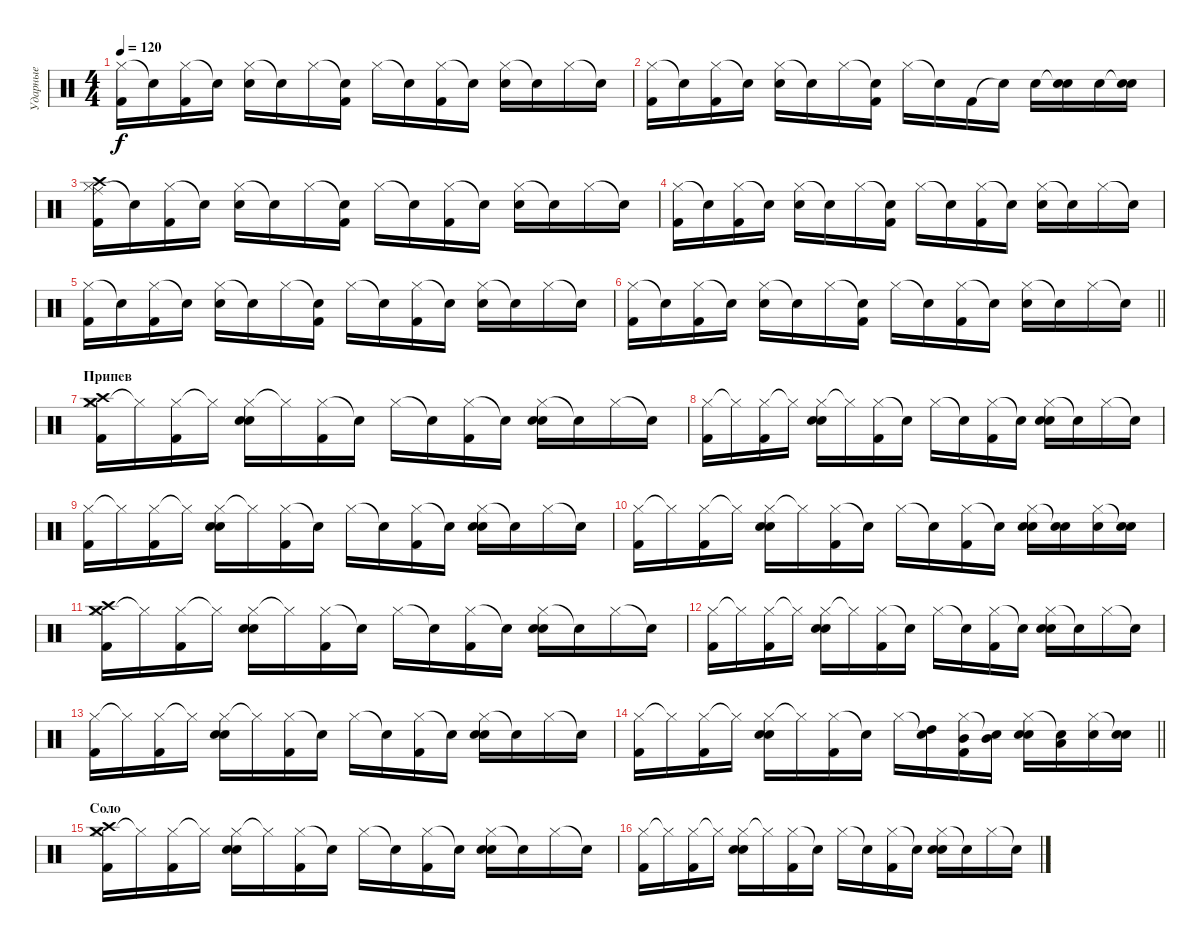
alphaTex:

\track ("Ударные" "Ударные") {instrument percussion}
\staff {score}
\articulation defaults
\ts (4 4)
\tempo 120
\clef neutral
\ks c
("Hi-Hat (closed)" "Kick (hit) 2").16{dy f} "Snare (hit)"{t}.16 ("Hi-Hat (closed)" "Kick (hit) 2").16 "Snare (hit)"{t}.16 ("Hi-Hat (closed)" "Snare (hit) 2").16 "Snare (hit)"{t}.16 "Hi-Hat (closed)".16 ("Snare (hit)"{t} "Kick (hit) 2").16 "Hi-Hat (closed)".16 "Snare (hit)"{t}.16 ("Hi-Hat (closed)" "Kick (hit) 2").16 "Snare (hit)"{t}.16 ("Hi-Hat (closed)" "Snare (hit) 2").16 "Snare (hit)"{t}.16 "Hi-Hat (closed)".16 "Snare (hit)"{t}.16 |
("Hi-Hat (closed)" "Kick (hit) 2").16 "Snare (hit)"{t}.16 ("Hi-Hat (closed)" "Kick (hit) 2").16 "Snare (hit)"{t}.16 ("Hi-Hat (closed)" "Snare (hit) 2").16 "Snare (hit)"{t}.16 "Hi-Hat (closed)".16 ("Snare (hit)"{t} "Kick (hit) 2").16 "Hi-Hat (closed)".16 "Snare (hit)"{t}.16 "Kick (hit) 2".16 "Snare (hit)"{t}.16 "Snare (hit) 2".16 ("Snare (hit)"{t} "Snare (hit) 2").16 "Snare (hit) 2".16 ("Snare (hit)"{t} "Snare (hit) 2").16 |
("Hi-Hat (closed)" "Ride (middle)" "Crash high (hit)" "Kick (hit) 2").16 "Snare (hit)"{t}.16 ("Hi-Hat (closed)" "Kick (hit) 2").16 "Snare (hit)"{t}.16 ("Hi-Hat (closed)" "Snare (hit) 2").16 "Snare (hit)"{t}.16 "Hi-Hat (closed)".16 ("Snare (hit)"{t} "Kick (hit) 2").16 "Hi-Hat (closed)".16 "Snare (hit)"{t}.16 ("Hi-Hat (closed)" "Kick (hit) 2").16 "Snare (hit)"{t}.16 ("Hi-Hat (closed)" "Snare (hit) 2").16 "Snare (hit)"{t}.16 "Hi-Hat (closed)".16 "Snare (hit)"{t}.16 |
("Hi-Hat (closed)" "Kick (hit) 2").16 "Snare (hit)"{t}.16 ("Hi-Hat (closed)" "Kick (hit) 2").16 "Snare (hit)"{t}.16 ("Hi-Hat (closed)" "Snare (hit) 2").16 "Snare (hit)"{t}.16 "Hi-Hat (closed)".16 ("Snare (hit)"{t} "Kick (hit) 2").16 "Hi-Hat (closed)".16 "Snare (hit)"{t}.16 ("Hi-Hat (closed)" "Kick (hit) 2").16 "Snare (hit)"{t}.16 ("Hi-Hat (closed)" "Snare (hit) 2").16 "Snare (hit)"{t}.16 "Hi-Hat (closed)".16 "Snare (hit)"{t}.16 |
("Hi-Hat (closed)" "Kick (hit) 2").16 "Snare (hit)"{t}.16 ("Hi-Hat (closed)" "Kick (hit) 2").16 "Snare (hit)"{t}.16 ("Hi-Hat (closed)" "Snare (hit) 2").16 "Snare (hit)"{t}.16 "Hi-Hat (closed)".16 ("Snare (hit)"{t} "Kick (hit) 2").16 "Hi-Hat (closed)".16 "Snare (hit)"{t}.16 ("Hi-Hat (closed)" "Kick (hit) 2").16 "Snare (hit)"{t}.16 ("Hi-Hat (closed)" "Snare (hit) 2").16 "Snare (hit)"{t}.16 "Hi-Hat (closed)".16 "Snare (hit)"{t}.16 |
\barLineRight lightlight
("Hi-Hat (closed)" "Kick (hit) 2").16 "Snare (hit)"{t}.16 ("Hi-Hat (closed)" "Kick (hit) 2").16 "Snare (hit)"{t}.16 ("Hi-Hat (closed)" "Snare (hit) 2").16 "Snare (hit)"{t}.16 "Hi-Hat (closed)".16 ("Snare (hit)"{t} "Kick (hit) 2").16 "Hi-Hat (closed)".16 "Snare (hit)"{t}.16 ("Hi-Hat (closed)" "Kick (hit) 2").16 "Snare (hit)"{t}.16 ("Hi-Hat (closed)" "Snare (hit) 2").16 "Snare (hit)"{t}.16 "Hi-Hat (closed)".16 "Snare (hit)"{t}.16 |
\section ("" "Припев")
("Hi-Hat (closed)" "Crash medium (hit)" "Crash high (hit)" "Kick (hit) 2").16 "Hi-Hat (closed)"{t}.16 ("Hi-Hat (closed)" "Kick (hit) 2").16 "Hi-Hat (closed)"{t}.16 ("Hi-Hat (closed)" "Electric Snare (hit)" "Snare (hit) 2").16 "Hi-Hat (closed)"{t}.16 ("Hi-Hat (closed)" "Kick (hit) 2").16 "Snare (hit)"{t}.16 "Hi-Hat (closed)".16 "Snare (hit)"{t}.16 ("Hi-Hat (closed)" "Kick (hit) 2").16 "Snare (hit)"{t}.16 ("Hi-Hat (closed)" "Electric Snare (hit)" "Snare (hit) 2").16 "Snare (hit)"{t}.16 "Hi-Hat (closed)".16 "Snare (hit)"{t}.16 |
("Hi-Hat (closed)" "Kick (hit) 2").16 "Hi-Hat (closed)"{t}.16 ("Hi-Hat (closed)" "Kick (hit) 2").16 "Hi-Hat (closed)"{t}.16 ("Hi-Hat (closed)" "Electric Snare (hit)" "Snare (hit) 2").16 "Hi-Hat (closed)"{t}.16 ("Hi-Hat (closed)" "Kick (hit) 2").16 "Snare (hit)"{t}.16 "Hi-Hat (closed)".16 "Snare (hit)"{t}.16 ("Hi-Hat (closed)" "Kick (hit) 2").16 "Snare (hit)"{t}.16 ("Hi-Hat (closed)" "Electric Snare (hit)" "Snare (hit) 2").16 "Snare (hit)"{t}.16 "Hi-Hat (closed)".16 "Snare (hit)"{t}.16 |
("Hi-Hat (closed)" "Kick (hit) 2").16 "Hi-Hat (closed)"{t}.16 ("Hi-Hat (closed)" "Kick (hit) 2").16 "Hi-Hat (closed)"{t}.16 ("Hi-Hat (closed)" "Electric Snare (hit)" "Snare (hit) 2").16 "Hi-Hat (closed)"{t}.16 ("Hi-Hat (closed)" "Kick (hit) 2").16 "Snare (hit)"{t}.16 "Hi-Hat (closed)".16 "Snare (hit)"{t}.16 ("Hi-Hat (closed)" "Kick (hit) 2").16 "Snare (hit)"{t}.16 ("Hi-Hat (closed)" "Electric Snare (hit)" "Snare (hit) 2").16 "Snare (hit)"{t}.16 "Hi-Hat (closed)".16 "Snare (hit)"{t}.16 |
("Hi-Hat (closed)" "Kick (hit) 2").16 "Hi-Hat (closed)"{t}.16 ("Hi-Hat (closed)" "Kick (hit) 2").16 "Hi-Hat (closed)"{t}.16 ("Hi-Hat (closed)" "Electric Snare (hit)" "Snare (hit) 2").16 "Hi-Hat (closed)"{t}.16 ("Hi-Hat (closed)" "Kick (hit) 2").16 "Snare (hit)"{t}.16 "Hi-Hat (closed)".16 "Snare (hit)"{t}.16 ("Hi-Hat (closed)" "Kick (hit) 2").16 "Snare (hit)"{t}.16 ("Hi-Hat (closed)" "Electric Snare (hit)" "Snare (hit) 2").16 ("Snare (hit)"{t} "Electric Snare (hit)").16 ("Hi-Hat (closed)" "Electric Snare (hit)").16 ("Snare (hit)"{t} "Electric Snare (hit)").16 |
("Hi-Hat (closed)" "Crash medium (hit)" "Crash high (hit)" "Kick (hit) 2").16 "Hi-Hat (closed)"{t}.16 ("Hi-Hat (closed)" "Kick (hit) 2").16 "Hi-Hat (closed)"{t}.16 ("Hi-Hat (closed)" "Electric Snare (hit)" "Snare (hit) 2").16 "Hi-Hat (closed)"{t}.16 ("Hi-Hat (closed)" "Kick (hit) 2").16 "Snare (hit)"{t}.16 "Hi-Hat (closed)".16 "Snare (hit)"{t}.16 ("Hi-Hat (closed)" "Kick (hit) 2").16 "Snare (hit)"{t}.16 ("Hi-Hat (closed)" "Electric Snare (hit)" "Snare (hit) 2").16 "Snare (hit)"{t}.16 "Hi-Hat (closed)".16 "Snare (hit)"{t}.16 |
("Hi-Hat (closed)" "Kick (hit) 2").16 "Hi-Hat (closed)"{t}.16 ("Hi-Hat (closed)" "Kick (hit) 2").16 "Hi-Hat (closed)"{t}.16 ("Hi-Hat (closed)" "Electric Snare (hit)" "Snare (hit) 2").16 "Hi-Hat (closed)"{t}.16 ("Hi-Hat (closed)" "Kick (hit) 2").16 "Snare (hit)"{t}.16 "Hi-Hat (closed)".16 "Snare (hit)"{t}.16 ("Hi-Hat (closed)" "Kick (hit) 2").16 "Snare (hit)"{t}.16 ("Hi-Hat (closed)" "Electric Snare (hit)" "Snare (hit) 2").16 "Snare (hit)"{t}.16 "Hi-Hat (closed)".16 "Snare (hit)"{t}.16 |
("Hi-Hat (closed)" "Kick (hit) 2").16 "Hi-Hat (closed)"{t}.16 ("Hi-Hat (closed)" "Kick (hit) 2").16 "Hi-Hat (closed)"{t}.16 ("Hi-Hat (closed)" "Electric Snare (hit)" "Snare (hit) 2").16 "Hi-Hat (closed)"{t}.16 ("Hi-Hat (closed)" "Kick (hit) 2").16 "Snare (hit)"{t}.16 "Hi-Hat (closed)".16 "Snare (hit)"{t}.16 ("Hi-Hat (closed)" "Kick (hit) 2").16 "Snare (hit)"{t}.16 ("Hi-Hat (closed)" "Electric Snare (hit)" "Snare (hit) 2").16 "Snare (hit)"{t}.16 "Hi-Hat (closed)".16 "Snare (hit)"{t}.16 |
\barLineRight lightlight
("Hi-Hat (closed)" "Kick (hit) 2").16 "Hi-Hat (closed)"{t}.16 ("Hi-Hat (closed)" "Kick (hit) 2").16 "Hi-Hat (closed)"{t}.16 ("Hi-Hat (closed)" "Electric Snare (hit)" "Snare (hit) 2").16 "Hi-Hat (closed)"{t}.16 ("Hi-Hat (closed)" "Kick (hit) 2").16 "Snare (hit)"{t}.16 "Hi-Hat (closed)".16 ("Snare (hit)"{t} "High Tom (hit)").16 ("Hi-Hat (closed)" "Mid Tom (hit)" "Kick (hit) 2").16 ("Snare (hit)"{t} "Mid Tom (hit)").16 ("Hi-Hat (closed)" "Electric Snare (hit)" "Snare (hit) 2").16 ("Snare (hit)"{t} "Low Tom (hit)").16 ("Hi-Hat (closed)" "Electric Snare (hit)").16 ("Snare (hit)"{t} "Electric Snare (hit)").16 |
\section ("" "Соло")
("Hi-Hat (closed)" "Crash medium (hit)" "Crash high (hit)" "Kick (hit) 2").16 "Hi-Hat (closed)"{t}.16 ("Hi-Hat (closed)" "Kick (hit) 2").16 "Hi-Hat (closed)"{t}.16 ("Hi-Hat (closed)" "Electric Snare (hit)" "Snare (hit) 2").16 "Hi-Hat (closed)"{t}.16 ("Hi-Hat (closed)" "Kick (hit) 2").16 "Snare (hit)"{t}.16 "Hi-Hat (closed)".16 "Snare (hit)"{t}.16 ("Hi-Hat (closed)" "Kick (hit) 2").16 "Snare (hit)"{t}.16 ("Hi-Hat (closed)" "Electric Snare (hit)" "Snare (hit) 2").16 "Snare (hit)"{t}.16 "Hi-Hat (closed)".16 "Snare (hit)"{t}.16 |
("Hi-Hat (closed)" "Kick (hit) 2").16 "Hi-Hat (closed)"{t}.16 ("Hi-Hat (closed)" "Kick (hit) 2").16 "Hi-Hat (closed)"{t}.16 ("Hi-Hat (closed)" "Electric Snare (hit)" "Snare (hit) 2").16 "Hi-Hat (closed)"{t}.16 ("Hi-Hat (closed)" "Kick (hit) 2").16 "Snare (hit)"{t}.16 "Hi-Hat (closed)".16 "Snare (hit)"{t}.16 ("Hi-Hat (closed)" "Kick (hit) 2").16 "Snare (hit)"{t}.16 ("Hi-Hat (closed)" "Electric Snare (hit)" "Snare (hit) 2").16 "Snare (hit)"{t}.16 "Hi-Hat (closed)".16 "Snare (hit)"{t}.16
